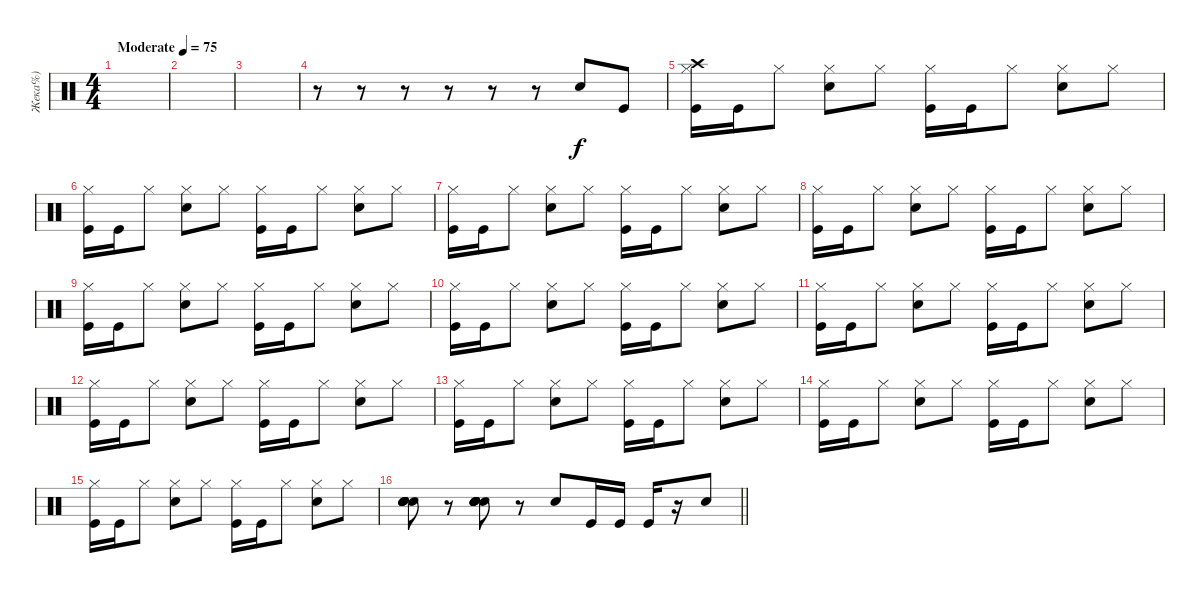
\track ("Жека%)" "Жека%)") {instrument percussion}
\staff {score}
\articulation defaults
\ts (4 4)
\tempo (75 "Moderate")
\clef neutral
\ks c
|
|
|
r.8 r.8 r.8 r.8 r.8 r.8 "Snare (hit) 2".8 "Kick (hit)".8 |
("Hi-Hat (closed)" "Kick (hit)" "Crash high (hit)").16 "Kick (hit)".16 "Hi-Hat (closed)".8 ("Hi-Hat (closed)" "Snare (hit) 2").8 "Hi-Hat (closed)".8 ("Hi-Hat (closed)" "Kick (hit)").16 "Kick (hit)".16 "Hi-Hat (closed)".8 ("Hi-Hat (closed)" "Snare (hit) 2").8 "Hi-Hat (closed)".8 |
("Hi-Hat (closed)" "Kick (hit)").16 "Kick (hit)".16 "Hi-Hat (closed)".8 ("Hi-Hat (closed)" "Snare (hit) 2").8 "Hi-Hat (closed)".8 ("Hi-Hat (closed)" "Kick (hit)").16 "Kick (hit)".16 "Hi-Hat (closed)".8 ("Hi-Hat (closed)" "Snare (hit) 2").8 "Hi-Hat (closed)".8 |
("Hi-Hat (closed)" "Kick (hit)").16 "Kick (hit)".16 "Hi-Hat (closed)".8 ("Hi-Hat (closed)" "Snare (hit) 2").8 "Hi-Hat (closed)".8 ("Hi-Hat (closed)" "Kick (hit)").16 "Kick (hit)".16 "Hi-Hat (closed)".8 ("Hi-Hat (closed)" "Snare (hit) 2").8 "Hi-Hat (closed)".8 |
("Hi-Hat (closed)" "Kick (hit)").16 "Kick (hit)".16 "Hi-Hat (closed)".8 ("Hi-Hat (closed)" "Snare (hit) 2").8 "Hi-Hat (closed)".8 ("Hi-Hat (closed)" "Kick (hit)").16 "Kick (hit)".16 "Hi-Hat (closed)".8 ("Hi-Hat (closed)" "Snare (hit) 2").8 "Hi-Hat (closed)".8 |
("Hi-Hat (closed)" "Kick (hit)").16 "Kick (hit)".16 "Hi-Hat (closed)".8 ("Hi-Hat (closed)" "Snare (hit) 2").8 "Hi-Hat (closed)".8 ("Hi-Hat (closed)" "Kick (hit)").16 "Kick (hit)".16 "Hi-Hat (closed)".8 ("Hi-Hat (closed)" "Snare (hit) 2").8 "Hi-Hat (closed)".8 |
("Hi-Hat (closed)" "Kick (hit)").16 "Kick (hit)".16 "Hi-Hat (closed)".8 ("Hi-Hat (closed)" "Snare (hit) 2").8 "Hi-Hat (closed)".8 ("Hi-Hat (closed)" "Kick (hit)").16 "Kick (hit)".16 "Hi-Hat (closed)".8 ("Hi-Hat (closed)" "Snare (hit) 2").8 "Hi-Hat (closed)".8 |
("Hi-Hat (closed)" "Kick (hit)").16 "Kick (hit)".16 "Hi-Hat (closed)".8 ("Hi-Hat (closed)" "Snare (hit) 2").8 "Hi-Hat (closed)".8 ("Hi-Hat (closed)" "Kick (hit)").16 "Kick (hit)".16 "Hi-Hat (closed)".8 ("Hi-Hat (closed)" "Snare (hit) 2").8 "Hi-Hat (closed)".8 |
("Hi-Hat (closed)" "Kick (hit)").16 "Kick (hit)".16 "Hi-Hat (closed)".8 ("Hi-Hat (closed)" "Snare (hit) 2").8 "Hi-Hat (closed)".8 ("Hi-Hat (closed)" "Kick (hit)").16 "Kick (hit)".16 "Hi-Hat (closed)".8 ("Hi-Hat (closed)" "Snare (hit) 2").8 "Hi-Hat (closed)".8 |
("Hi-Hat (closed)" "Kick (hit)").16 "Kick (hit)".16 "Hi-Hat (closed)".8 ("Hi-Hat (closed)" "Snare (hit) 2").8 "Hi-Hat (closed)".8 ("Hi-Hat (closed)" "Kick (hit)").16 "Kick (hit)".16 "Hi-Hat (closed)".8 ("Hi-Hat (closed)" "Snare (hit) 2").8 "Hi-Hat (closed)".8 |
("Hi-Hat (closed)" "Kick (hit)").16 "Kick (hit)".16 "Hi-Hat (closed)".8 ("Hi-Hat (closed)" "Snare (hit) 2").8 "Hi-Hat (closed)".8 ("Hi-Hat (closed)" "Kick (hit)").16 "Kick (hit)".16 "Hi-Hat (closed)".8 ("Hi-Hat (closed)" "Snare (hit) 2").8 "Hi-Hat (closed)".8 |
("Hi-Hat (closed)" "Kick (hit)").16 "Kick (hit)".16 "Hi-Hat (closed)".8 ("Hi-Hat (closed)" "Snare (hit) 2").8 "Hi-Hat (closed)".8 ("Hi-Hat (closed)" "Kick (hit)").16 "Kick (hit)".16 "Hi-Hat (closed)".8 ("Hi-Hat (closed)" "Snare (hit) 2").8 "Hi-Hat (closed)".8 |
\barLineRight lightlight
("Snare (hit) 2" "Snare (hit) 2" "Snare (hit) 2" "Snare (hit) 2" "Snare (hit) 2" "Snare (hit) 2").8 r.8 ("Snare (hit) 2" "Snare (hit) 2" "Snare (hit) 2" "Snare (hit) 2" "Snare (hit) 2" "Snare (hit) 2").8 r.8 "Snare (hit) 2".8 "Kick (hit)".16 "Kick (hit)".16 "Kick (hit)".16 r.16 "Snare (hit) 2".8
